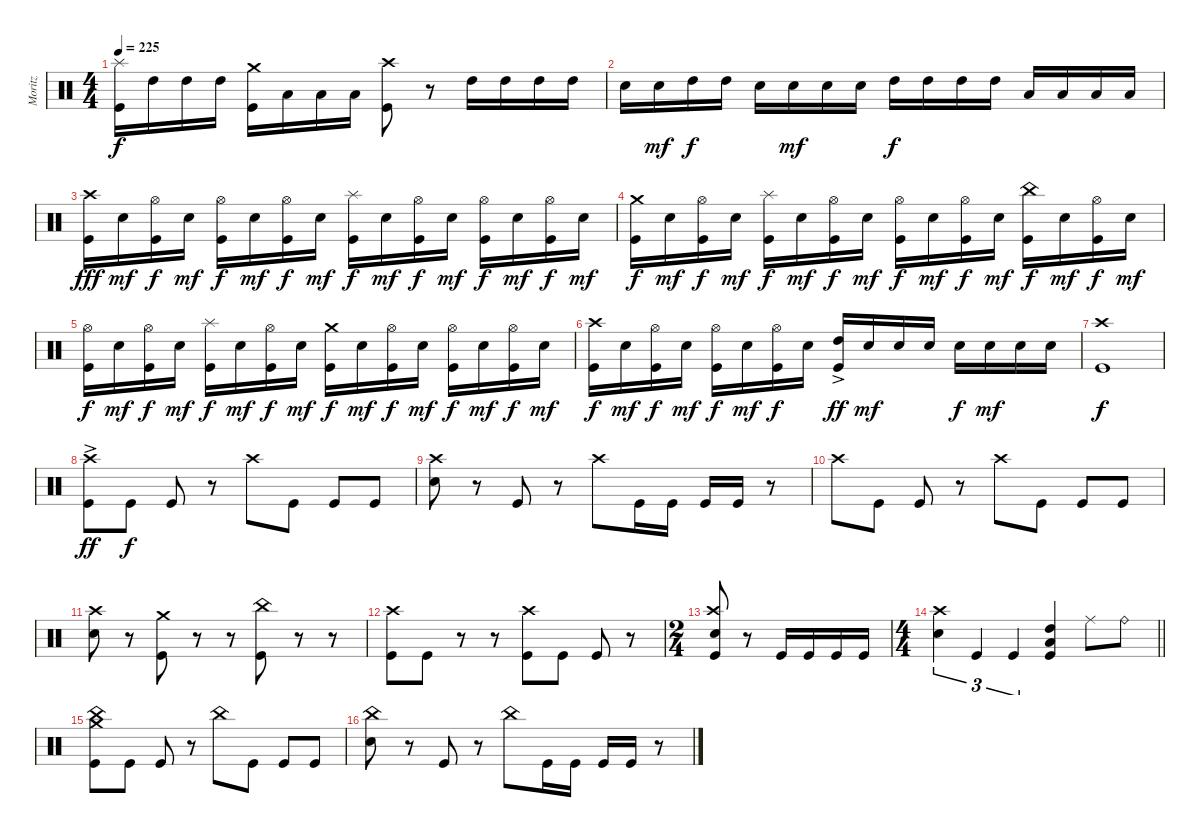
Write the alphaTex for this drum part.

\track ("Moritz" "Moritz") {instrument percussion}
\staff {score}
\articulation defaults
\ts (4 4)
\tempo 225
\clef neutral
\ks c
("Splash (hit)" "Kick (hit)").16{dy f} "High Tom (hit)".16 "High Tom (hit)".16 "High Tom (hit)".16 ("Crash medium (hit)" "Kick (hit)").16 "Low Tom (hit)".16 "Low Tom (hit)".16 "Low Tom (hit)".16 ("Crash high (hit)" "Kick (hit)").8 r.8 "High Tom (hit)".16 "High Tom (hit)".16 "High Tom (hit)".16 "High Tom (hit)".16 |
"Snare (hit) 2".16 "Snare (hit) 2".16{dy mf} "High Tom (hit)".16{dy f} "High Tom (hit)".16 "Snare (hit) 2".16 "Snare (hit) 2".16{dy mf} "Snare (hit) 2".16 "Snare (hit) 2".16 "High Tom (hit)".16{dy f} "High Tom (hit)".16 "High Tom (hit)".16 "High Tom (hit)".16 "Low Tom (hit)".16 "Low Tom (hit)".16 "Low Tom (hit)".16 "Low Tom (hit)".16 |
("Crash high (hit)" "Kick (hit)").16{dy fff} "Snare (hit) 2".16{dy mf} ("Hi-Hat (open)" "Kick (hit)").16{dy f} "Snare (hit) 2".16{dy mf} ("Hi-Hat (open)" "Kick (hit)").16{dy f} "Snare (hit) 2".16{dy mf} ("Hi-Hat (open)" "Kick (hit)").16{dy f} "Snare (hit) 2".16{dy mf} ("Splash (hit)" "Kick (hit)").16{dy f} "Snare (hit) 2".16{dy mf} ("Hi-Hat (open)" "Kick (hit)").16{dy f} "Snare (hit) 2".16{dy mf} ("Hi-Hat (open)" "Kick (hit)").16{dy f} "Snare (hit) 2".16{dy mf} ("Hi-Hat (open)" "Kick (hit)").16{dy f} "Snare (hit) 2".16{dy mf} |
("Crash medium (hit)" "Kick (hit)").16{dy f} "Snare (hit) 2".16{dy mf} ("Hi-Hat (open)" "Kick (hit)").16{dy f} "Snare (hit) 2".16{dy mf} ("Splash (hit)" "Kick (hit)").16{dy f} "Snare (hit) 2".16{dy mf} ("Hi-Hat (open)" "Kick (hit)").16{dy f} "Snare (hit) 2".16{dy mf} ("Hi-Hat (open)" "Kick (hit)").16{dy f} "Snare (hit) 2".16{dy mf} ("Hi-Hat (open)" "Kick (hit)").16{dy f} "Snare (hit) 2".16{dy mf} ("China (hit)" "Kick (hit)").16{dy f} "Snare (hit) 2".16{dy mf} ("Hi-Hat (open)" "Kick (hit)").16{dy f} "Snare (hit) 2".16{dy mf} |
("Hi-Hat (open)" "Kick (hit)").16{dy f} "Snare (hit) 2".16{dy mf} ("Hi-Hat (open)" "Kick (hit)").16{dy f} "Snare (hit) 2".16{dy mf} ("Splash (hit)" "Kick (hit)").16{dy f} "Snare (hit) 2".16{dy mf} ("Hi-Hat (open)" "Kick (hit)").16{dy f} "Snare (hit) 2".16{dy mf} ("Crash medium (hit)" "Kick (hit)").16{dy f} "Snare (hit) 2".16{dy mf} ("Hi-Hat (open)" "Kick (hit)").16{dy f} "Snare (hit) 2".16{dy mf} ("Hi-Hat (open)" "Kick (hit)").16{dy f} "Snare (hit) 2".16{dy mf} ("Hi-Hat (open)" "Kick (hit)").16{dy f} "Snare (hit) 2".16{dy mf} |
("Crash high (hit)" "Kick (hit)").16{dy f} "Snare (hit) 2".16{dy mf} ("Hi-Hat (open)" "Kick (hit)").16{dy f} "Snare (hit) 2".16{dy mf} ("Hi-Hat (open)" "Kick (hit)").16{dy f} "Snare (hit) 2".16{dy mf} ("Hi-Hat (open)" "Kick (hit)").16{dy f} "Snare (hit) 2".16 ("High Tom (hit)"{ac} "Kick (hit)"{ac}).16{dy ff} "Snare (hit) 2".16{dy mf} "Snare (hit) 2".16 "Snare (hit) 2".16 "Snare (hit) 2".16{dy f} "Snare (hit) 2".16{dy mf} "Snare (hit) 2".16 "Snare (hit) 2".16 |
("Crash high (hit)" "Kick (hit)").1{dy f} |
("Crash high (hit)"{ac} "Kick (hit)"{ac}).8{dy ff} "Kick (hit)".8{dy f} "Kick (hit)".8 r.8 "Crash high (hit)".8 "Kick (hit)".8 "Kick (hit)".8 "Kick (hit)".8 |
("Crash high (hit)" "Snare (hit) 2").8 r.8 "Kick (hit)".8 r.8 "Crash high (hit)".8 "Kick (hit)".16 "Kick (hit)".16 "Kick (hit)".16 "Kick (hit)".16 r.8 |
"Crash high (hit)".8 "Kick (hit)".8 "Kick (hit)".8 r.8 "Crash high (hit)".8 "Kick (hit)".8 "Kick (hit)".8 "Kick (hit)".8 |
("Crash high (hit)" "Snare (hit) 2").8 r.8 ("Crash medium (hit)" "Kick (hit)").8 r.8 r.8 ("China (hit)" "Kick (hit)").8 r.8 r.8 |
("Crash high (hit)" "Kick (hit)").8 "Kick (hit)".8 r.8 r.8 ("Crash high (hit)" "Kick (hit)").8 "Kick (hit)".8 "Kick (hit)".8 r.8 |
\ts (2 4)
("Crash high (hit)" "Snare (hit) 2" "Kick (hit)").8 r.8 "Kick (hit)".16 "Kick (hit)".16 "Kick (hit)".16 "Kick (hit)".16 |
\ts (4 4)
\barLineRight lightlight
("Crash high (hit)" "Snare (hit) 2").4{tu (3 2)} "Kick (hit)".4{tu (3 2)} "Kick (hit)".4{tu (3 2)} ("High Tom (hit)" "Low Floor Tom (hit)" "Kick (hit)").4 "Ride (middle)".8 "Ride (bell)".8 |
("Crash medium (hit)" "China (hit)" "Kick (hit)").8 "Kick (hit)".8 "Kick (hit)".8 r.8 "China (hit)".8 "Kick (hit)".8 "Kick (hit)".8 "Kick (hit)".8 |
("China (hit)" "Snare (hit) 2").8 r.8 "Kick (hit)".8 r.8 "China (hit)".8 "Kick (hit)".16 "Kick (hit)".16 "Kick (hit)".16 "Kick (hit)".16 r.8
